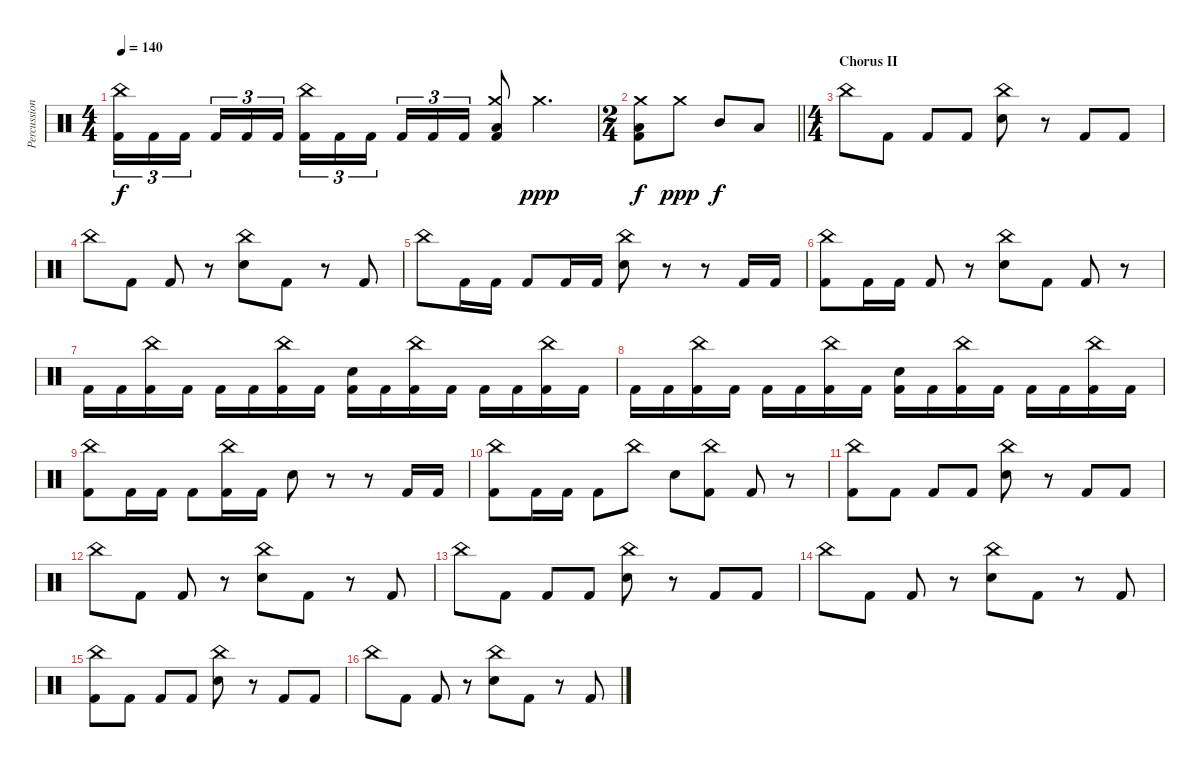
\track ("Percussion" "Percussion") {instrument percussion}
\staff {score}
\articulation defaults
\ts (4 4)
\tempo 140
\clef neutral
\ks c
("China (hit)" "Kick (hit) 2").16{tu (3 2) dy f} "Kick (hit) 2".16{tu (3 2)} "Kick (hit) 2".16{tu (3 2) beam splitsecondary} "Kick (hit) 2".16{tu (3 2)} "Kick (hit) 2".16{tu (3 2)} "Kick (hit) 2".16{tu (3 2)} ("China (hit)" "Kick (hit) 2").16{tu (3 2)} "Kick (hit) 2".16{tu (3 2)} "Kick (hit) 2".16{tu (3 2) beam splitsecondary} "Kick (hit) 2".16{tu (3 2)} "Kick (hit) 2".16{tu (3 2)} "Kick (hit) 2".16{tu (3 2)} ("Crash medium (hit)" "Low Floor Tom (hit)" "Kick (hit) 2").8 "Crash medium (hit)".4{d dy ppp} |
\ts (2 4)
\barLineRight lightlight
("Crash medium (hit)" "Low Floor Tom (hit)" "Kick (hit) 2").8{dy f} "Crash medium (hit)".8{dy ppp} "Mid Tom (hit)".8{dy f} "Low Tom (hit)".8 |
\ts (4 4)
\section ("" "Chorus II")
"China (hit)".8 "Kick (hit) 2".8 "Kick (hit) 2".8 "Kick (hit) 2".8 ("China (hit)" "Snare (hit) 2").8 r.8 "Kick (hit) 2".8 "Kick (hit) 2".8 |
"China (hit)".8 "Kick (hit) 2".8 "Kick (hit) 2".8 r.8 ("China (hit)" "Snare (hit) 2").8 "Kick (hit) 2".8 r.8 "Kick (hit) 2".8 |
"China (hit)".8 "Kick (hit) 2".16 "Kick (hit) 2".16 "Kick (hit) 2".8 "Kick (hit) 2".16 "Kick (hit) 2".16 ("China (hit)" "Snare (hit) 2").8 r.8 r.8 "Kick (hit) 2".16 "Kick (hit) 2".16 |
("China (hit)" "Kick (hit) 2").8 "Kick (hit) 2".16 "Kick (hit) 2".16 "Kick (hit) 2".8 r.8 ("China (hit)" "Snare (hit) 2").8 "Kick (hit) 2".8 "Kick (hit) 2".8 r.8 |
"Kick (hit) 2".16 "Kick (hit) 2".16 ("China (hit)" "Kick (hit) 2").16 "Kick (hit) 2".16 "Kick (hit) 2".16 "Kick (hit) 2".16 ("China (hit)" "Kick (hit) 2").16 "Kick (hit) 2".16 ("Snare (hit) 2" "Kick (hit) 2").16 "Kick (hit) 2".16 ("China (hit)" "Kick (hit) 2").16 "Kick (hit) 2".16 "Kick (hit) 2".16 "Kick (hit) 2".16 ("China (hit)" "Kick (hit) 2").16 "Kick (hit) 2".16 |
"Kick (hit) 2".16 "Kick (hit) 2".16 ("China (hit)" "Kick (hit) 2").16 "Kick (hit) 2".16 "Kick (hit) 2".16 "Kick (hit) 2".16 ("China (hit)" "Kick (hit) 2").16 "Kick (hit) 2".16 ("Snare (hit) 2" "Kick (hit) 2").16 "Kick (hit) 2".16 ("China (hit)" "Kick (hit) 2").16 "Kick (hit) 2".16 "Kick (hit) 2".16 "Kick (hit) 2".16 ("China (hit)" "Kick (hit) 2").16 "Kick (hit) 2".16 |
("China (hit)" "Kick (hit) 2").8 "Kick (hit) 2".16 "Kick (hit) 2".16 "Kick (hit) 2".8 ("China (hit)" "Kick (hit) 2").16 "Kick (hit) 2".16 "Snare (hit) 2".8 r.8 r.8 "Kick (hit) 2".16 "Kick (hit) 2".16 |
("China (hit)" "Kick (hit) 2").8 "Kick (hit) 2".16 "Kick (hit) 2".16 "Kick (hit) 2".8 "China (hit)".8 "Snare (hit) 2".8 ("China (hit)" "Kick (hit) 2").8 "Kick (hit) 2".8 r.8 |
("China (hit)" "Kick (hit) 2").8 "Kick (hit) 2".8 "Kick (hit) 2".8 "Kick (hit) 2".8 ("China (hit)" "Snare (hit) 2").8 r.8 "Kick (hit) 2".8 "Kick (hit) 2".8 |
"China (hit)".8 "Kick (hit) 2".8 "Kick (hit) 2".8 r.8 ("China (hit)" "Snare (hit) 2").8 "Kick (hit) 2".8 r.8 "Kick (hit) 2".8 |
"China (hit)".8 "Kick (hit) 2".8 "Kick (hit) 2".8 "Kick (hit) 2".8 ("China (hit)" "Snare (hit) 2").8 r.8 "Kick (hit) 2".8 "Kick (hit) 2".8 |
"China (hit)".8 "Kick (hit) 2".8 "Kick (hit) 2".8 r.8 ("China (hit)" "Snare (hit) 2").8 "Kick (hit) 2".8 r.8 "Kick (hit) 2".8 |
("China (hit)" "Kick (hit) 2").8 "Kick (hit) 2".8 "Kick (hit) 2".8 "Kick (hit) 2".8 ("China (hit)" "Snare (hit) 2").8 r.8 "Kick (hit) 2".8 "Kick (hit) 2".8 |
"China (hit)".8 "Kick (hit) 2".8 "Kick (hit) 2".8 r.8 ("China (hit)" "Snare (hit) 2").8 "Kick (hit) 2".8 r.8 "Kick (hit) 2".8
